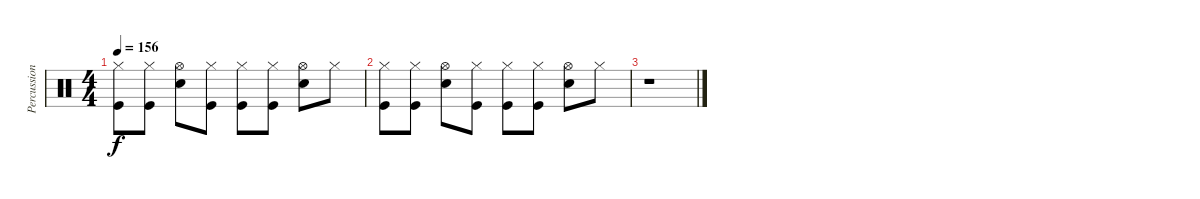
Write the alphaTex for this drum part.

\track ("Percussion" "Percussion") {instrument percussion}
\staff {score}
\articulation defaults
\ts (4 4)
\tempo 156
\clef neutral
\ks c
("Kick (hit)" "Hi-Hat (closed)").8{dy f} ("Kick (hit)" "Hi-Hat (closed)").8 ("Snare (hit) 2" "Hi-Hat (open)").8 ("Kick (hit)" "Hi-Hat (closed)").8 ("Kick (hit)" "Hi-Hat (closed)").8 ("Kick (hit)" "Hi-Hat (closed)").8 ("Snare (hit) 2" "Hi-Hat (open)").8 "Hi-Hat (closed)".8 |
("Kick (hit)" "Hi-Hat (closed)").8 ("Kick (hit)" "Hi-Hat (closed)").8 ("Snare (hit) 2" "Hi-Hat (open)").8 ("Kick (hit)" "Hi-Hat (closed)").8 ("Kick (hit)" "Hi-Hat (closed)").8 ("Kick (hit)" "Hi-Hat (closed)").8 ("Snare (hit) 2" "Hi-Hat (open)").8 "Hi-Hat (closed)".8 |
r.1
